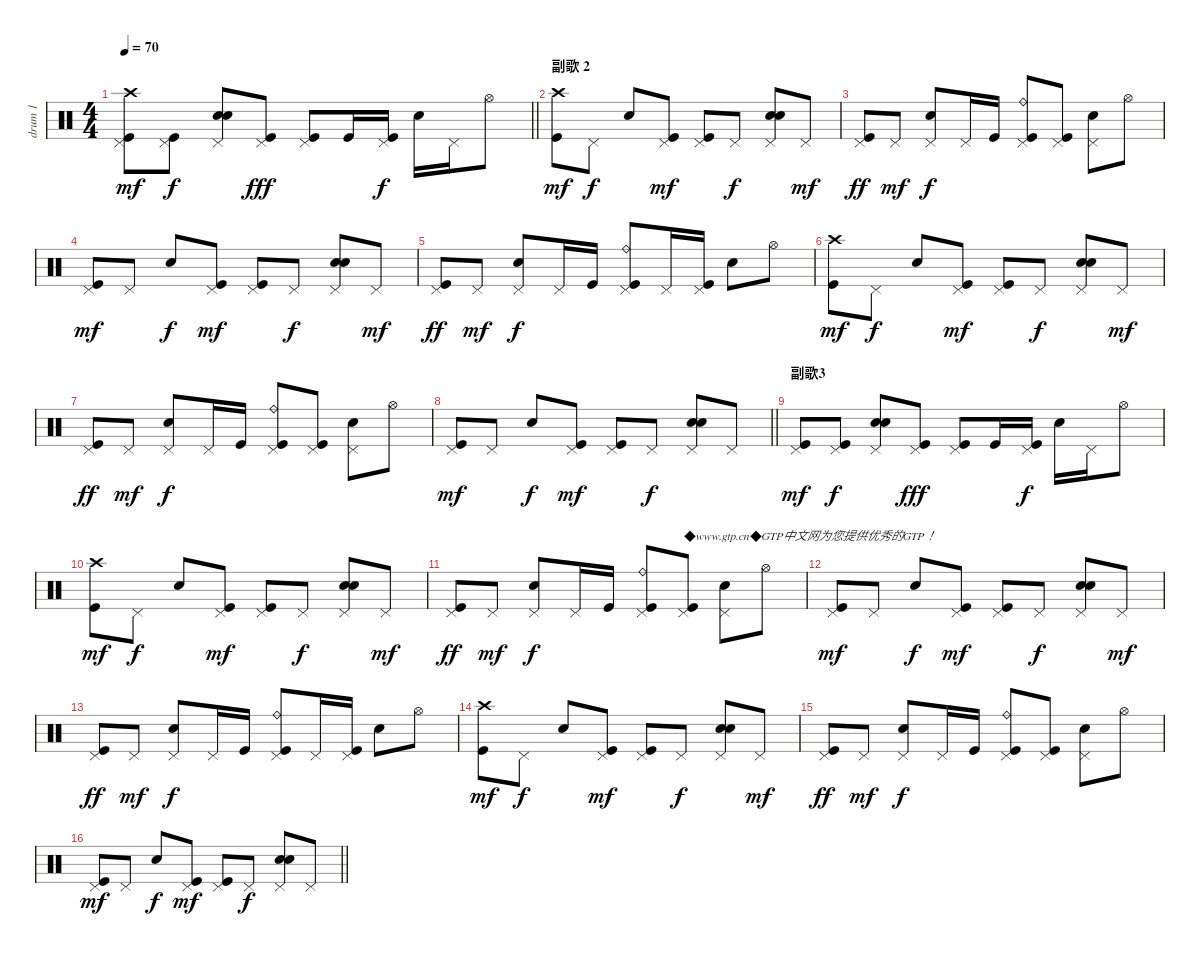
\track ("drum 1" "drum 1") {instrument percussion}
\staff {score}
\articulation defaults
\ts (4 4)
\tempo 70
\clef neutral
\barLineRight lightlight
\ks c
("Crash high (hit)" "Pedal Hi-Hat (hit)" "Kick (hit)").8{dy mf} ("Pedal Hi-Hat (hit)" "Kick (hit)").8{dy f} ("Metronome (bell)" "Pedal Hi-Hat (hit)" "Snare (hit) 2").8 ("Pedal Hi-Hat (hit)" "Kick (hit)").8{dy fff} ("Pedal Hi-Hat (hit)" "Kick (hit)").8 "Kick (hit)".16 ("Pedal Hi-Hat (hit)" "Kick (hit)").16{dy f} "Snare (hit) 2".16 "Pedal Hi-Hat (hit)".16 "Hi-Hat (open)".8 |
\section ("" "副歌 2")
("Crash high (hit)" "Kick (hit)").8{dy mf} "Pedal Hi-Hat (hit)".8{dy f} "Snare (hit) 2".8 ("Pedal Hi-Hat (hit)" "Kick (hit)").8{dy mf} ("Pedal Hi-Hat (hit)" "Kick (hit)").8 "Pedal Hi-Hat (hit)".8{dy f} ("Metronome (bell)" "Pedal Hi-Hat (hit)" "Snare (hit) 2").8 "Pedal Hi-Hat (hit)".8{dy mf} |
("Pedal Hi-Hat (hit)" "Kick (hit)").8{dy ff} "Pedal Hi-Hat (hit)".8{dy mf} ("Pedal Hi-Hat (hit)" "Snare (hit) 2").8{dy f} "Pedal Hi-Hat (hit)".16 "Kick (hit)".16 ("Ride (bell)" "Pedal Hi-Hat (hit)" "Kick (hit)").8 ("Pedal Hi-Hat (hit)" "Kick (hit)").8 ("Pedal Hi-Hat (hit)" "Snare (hit) 2").8 "Hi-Hat (open)".8 |
("Pedal Hi-Hat (hit)" "Kick (hit)").8{dy mf} "Pedal Hi-Hat (hit)".8 "Snare (hit) 2".8{dy f} ("Pedal Hi-Hat (hit)" "Kick (hit)").8{dy mf} ("Pedal Hi-Hat (hit)" "Kick (hit)").8 "Pedal Hi-Hat (hit)".8{dy f} ("Metronome (bell)" "Pedal Hi-Hat (hit)" "Snare (hit) 2").8 "Pedal Hi-Hat (hit)".8{dy mf} |
("Pedal Hi-Hat (hit)" "Kick (hit)").8{dy ff} "Pedal Hi-Hat (hit)".8{dy mf} ("Pedal Hi-Hat (hit)" "Snare (hit) 2").8{dy f} "Pedal Hi-Hat (hit)".16 "Kick (hit)".16 ("Ride (bell)" "Pedal Hi-Hat (hit)" "Kick (hit)").8 "Pedal Hi-Hat (hit)".16 ("Pedal Hi-Hat (hit)" "Kick (hit)").16 "Snare (hit) 2".8 "Hi-Hat (open)".8 |
("Crash high (hit)" "Kick (hit)").8{dy mf} "Pedal Hi-Hat (hit)".8{dy f} "Snare (hit) 2".8 ("Pedal Hi-Hat (hit)" "Kick (hit)").8{dy mf} ("Pedal Hi-Hat (hit)" "Kick (hit)").8 "Pedal Hi-Hat (hit)".8{dy f} ("Metronome (bell)" "Pedal Hi-Hat (hit)" "Snare (hit) 2").8 "Pedal Hi-Hat (hit)".8{dy mf} |
("Pedal Hi-Hat (hit)" "Kick (hit)").8{dy ff} "Pedal Hi-Hat (hit)".8{dy mf} ("Pedal Hi-Hat (hit)" "Snare (hit) 2").8{dy f} "Pedal Hi-Hat (hit)".16 "Kick (hit)".16 ("Ride (bell)" "Pedal Hi-Hat (hit)" "Kick (hit)").8 ("Pedal Hi-Hat (hit)" "Kick (hit)").8 ("Pedal Hi-Hat (hit)" "Snare (hit) 2").8 "Hi-Hat (open)".8 |
\barLineRight lightlight
("Pedal Hi-Hat (hit)" "Kick (hit)").8{dy mf} "Pedal Hi-Hat (hit)".8 "Snare (hit) 2".8{dy f} ("Pedal Hi-Hat (hit)" "Kick (hit)").8{dy mf} ("Pedal Hi-Hat (hit)" "Kick (hit)").8 "Pedal Hi-Hat (hit)".8{dy f} ("Metronome (bell)" "Pedal Hi-Hat (hit)" "Snare (hit) 2").8 "Pedal Hi-Hat (hit)".8 |
\section ("" "副歌3")
("Pedal Hi-Hat (hit)" "Kick (hit)").8{dy mf} ("Pedal Hi-Hat (hit)" "Kick (hit)").8{dy f} ("Metronome (bell)" "Pedal Hi-Hat (hit)" "Snare (hit) 2").8 ("Pedal Hi-Hat (hit)" "Kick (hit)").8{dy fff} ("Pedal Hi-Hat (hit)" "Kick (hit)").8 "Kick (hit)".16 ("Pedal Hi-Hat (hit)" "Kick (hit)").16{dy f} "Snare (hit) 2".16 "Pedal Hi-Hat (hit)".16 "Hi-Hat (open)".8 |
("Crash high (hit)" "Kick (hit)").8{dy mf} "Pedal Hi-Hat (hit)".8{dy f} "Snare (hit) 2".8 ("Pedal Hi-Hat (hit)" "Kick (hit)").8{dy mf} ("Pedal Hi-Hat (hit)" "Kick (hit)").8 "Pedal Hi-Hat (hit)".8{dy f} ("Metronome (bell)" "Pedal Hi-Hat (hit)" "Snare (hit) 2").8 "Pedal Hi-Hat (hit)".8{dy mf} |
("Pedal Hi-Hat (hit)" "Kick (hit)").8{dy ff} "Pedal Hi-Hat (hit)".8{dy mf} ("Pedal Hi-Hat (hit)" "Snare (hit) 2").8{dy f} "Pedal Hi-Hat (hit)".16 "Kick (hit)".16 ("Ride (bell)" "Pedal Hi-Hat (hit)" "Kick (hit)").8 ("Pedal Hi-Hat (hit)" "Kick (hit)").8{txt "◆www.gtp.cn◆GTP中文网为您提供优秀的GTP！"} ("Pedal Hi-Hat (hit)" "Snare (hit) 2").8 "Hi-Hat (open)".8 |
("Pedal Hi-Hat (hit)" "Kick (hit)").8{dy mf} "Pedal Hi-Hat (hit)".8 "Snare (hit) 2".8{dy f} ("Pedal Hi-Hat (hit)" "Kick (hit)").8{dy mf} ("Pedal Hi-Hat (hit)" "Kick (hit)").8 "Pedal Hi-Hat (hit)".8{dy f} ("Metronome (bell)" "Pedal Hi-Hat (hit)" "Snare (hit) 2").8 "Pedal Hi-Hat (hit)".8{dy mf} |
("Pedal Hi-Hat (hit)" "Kick (hit)").8{dy ff} "Pedal Hi-Hat (hit)".8{dy mf} ("Pedal Hi-Hat (hit)" "Snare (hit) 2").8{dy f} "Pedal Hi-Hat (hit)".16 "Kick (hit)".16 ("Ride (bell)" "Pedal Hi-Hat (hit)" "Kick (hit)").8 "Pedal Hi-Hat (hit)".16 ("Pedal Hi-Hat (hit)" "Kick (hit)").16 "Snare (hit) 2".8 "Hi-Hat (open)".8 |
("Crash high (hit)" "Kick (hit)").8{dy mf} "Pedal Hi-Hat (hit)".8{dy f} "Snare (hit) 2".8 ("Pedal Hi-Hat (hit)" "Kick (hit)").8{dy mf} ("Pedal Hi-Hat (hit)" "Kick (hit)").8 "Pedal Hi-Hat (hit)".8{dy f} ("Metronome (bell)" "Pedal Hi-Hat (hit)" "Snare (hit) 2").8 "Pedal Hi-Hat (hit)".8{dy mf} |
("Pedal Hi-Hat (hit)" "Kick (hit)").8{dy ff} "Pedal Hi-Hat (hit)".8{dy mf} ("Pedal Hi-Hat (hit)" "Snare (hit) 2").8{dy f} "Pedal Hi-Hat (hit)".16 "Kick (hit)".16 ("Ride (bell)" "Pedal Hi-Hat (hit)" "Kick (hit)").8 ("Pedal Hi-Hat (hit)" "Kick (hit)").8 ("Pedal Hi-Hat (hit)" "Snare (hit) 2").8 "Hi-Hat (open)".8 |
\barLineRight lightlight
("Pedal Hi-Hat (hit)" "Kick (hit)").8{dy mf} "Pedal Hi-Hat (hit)".8 "Snare (hit) 2".8{dy f} ("Pedal Hi-Hat (hit)" "Kick (hit)").8{dy mf} ("Pedal Hi-Hat (hit)" "Kick (hit)").8 "Pedal Hi-Hat (hit)".8{dy f} ("Metronome (bell)" "Pedal Hi-Hat (hit)" "Snare (hit) 2").8 "Pedal Hi-Hat (hit)".8
